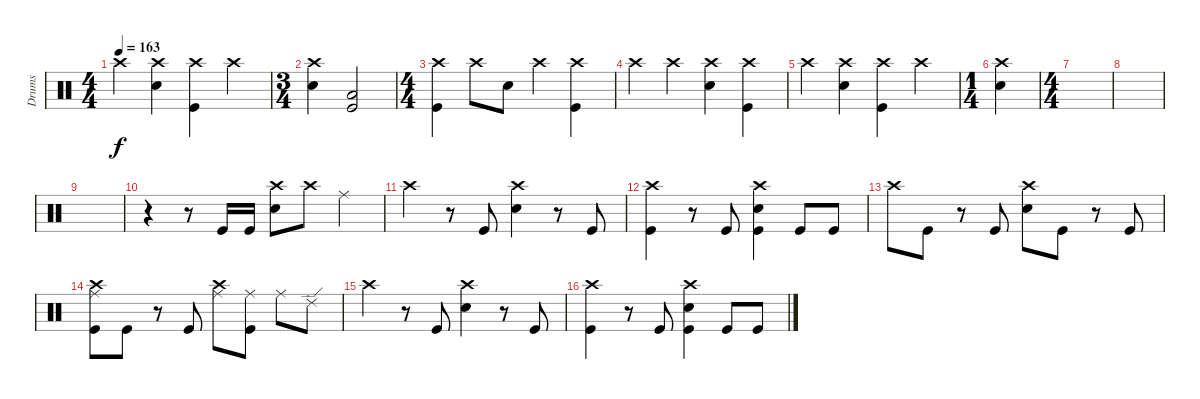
\track ("Drums" "Drums") {instrument percussion}
\staff {score}
\articulation defaults
\ts (4 4)
\tempo 163
\clef neutral
\ks c "Crash high (hit)".4{dy f}
("Crash high (hit)" "Snare (hit) 2").4 ("Crash high (hit)" "Kick (hit)").4 "Crash high (hit)".4 |
\ts (3 4)
("Crash high (hit)" "Snare (hit) 2").4 ("Low Floor Tom (hit)" "Kick (hit)").2 |
\ts (4 4)
("Crash high (hit)" "Kick (hit)").4 "Crash high (hit)".8 "Snare (hit) 2".8 "Crash high (hit)".4 ("Crash high (hit)" "Kick (hit)").4 |
"Crash high (hit)".4 "Crash high (hit)".4 ("Crash high (hit)" "Snare (hit) 2").4 ("Crash high (hit)" "Kick (hit)").4 |
"Crash high (hit)".4 ("Crash high (hit)" "Snare (hit) 2").4 ("Crash high (hit)" "Kick (hit)").4 "Crash high (hit)".4 |
\ts (1 4)
("Crash high (hit)" "Snare (hit) 2").4 |
\ts (4 4)
|
|
|
r.4 r.8 "Kick (hit)".16 "Kick (hit)".16 ("Crash high (hit)" "Snare (hit) 2").8 "Crash high (hit)".8 "Ride (middle)".4 |
"Crash high (hit)".4 r.8 "Kick (hit)".8 ("Crash high (hit)" "Snare (hit) 2").4 r.8 "Kick (hit)".8 |
("Crash high (hit)" "Kick (hit)").4 r.8 "Kick (hit)".8 ("Crash high (hit)" "Snare (hit) 2" "Kick (hit)").4 "Kick (hit)".8 "Kick (hit)".8 |
"Crash high (hit)".8 "Kick (hit)".8 r.8 "Kick (hit)".8 ("Crash high (hit)" "Snare (hit) 2").8 "Kick (hit)".8 r.8 "Kick (hit)".8 |
("Crash high (hit)" "Ride (middle)" "Kick (hit)").8 "Kick (hit)".8 r.8 "Kick (hit)".8 ("Crash high (hit)" "Ride (middle)").8 ("Ride (middle)" "Kick (hit)").8 "Ride (middle)".8 "Ride (edge) 2".8 |
"Crash high (hit)".4 r.8 "Kick (hit)".8 ("Crash high (hit)" "Snare (hit) 2").4 r.8 "Kick (hit)".8 |
("Crash high (hit)" "Kick (hit)").4 r.8 "Kick (hit)".8 ("Crash high (hit)" "Snare (hit) 2" "Kick (hit)").4 "Kick (hit)".8 "Kick (hit)".8
